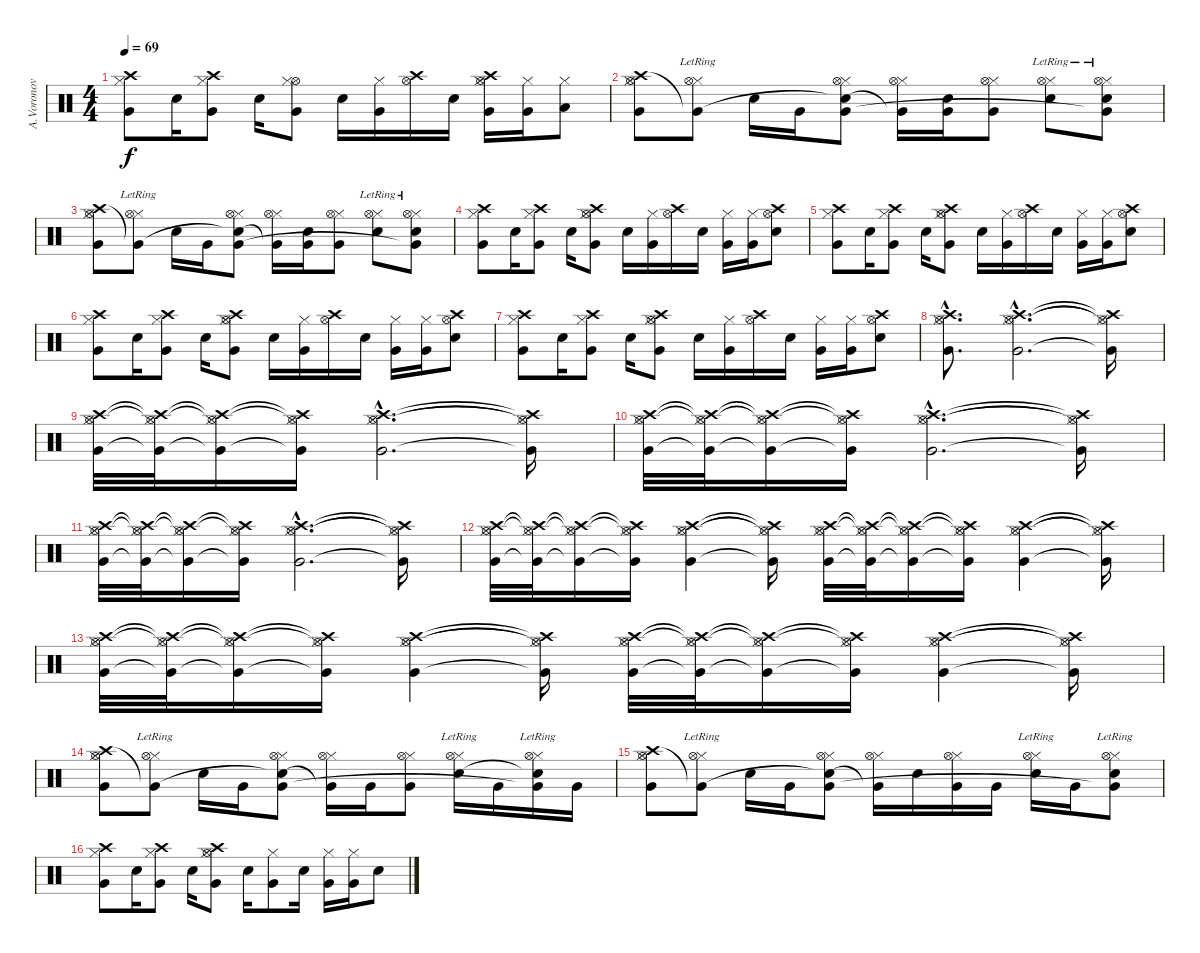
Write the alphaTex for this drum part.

\track ("A.Voronov - Drumzzz" "A.Voronov ") {instrument percussion}
\staff {score}
\articulation defaults
\ts (4 4)
\tempo 69
\clef neutral
\ks c
("Crash high (hit)" "Hi-Hat (closed)" "Very Low Tom (hit)").8{dy f} "Electric Snare (hit)".16 ("Crash high (hit)" "Hi-Hat (closed)" "Very Low Tom (hit)").8 "Electric Snare (hit)".16 ("Hi-Hat (open)" "Hi-Hat (closed)" "Very Low Tom (hit)").8 "Electric Snare (hit)".16 ("Hi-Hat (closed)" "Very Low Tom (hit)").16 ("Crash high (hit)" "Hi-Hat (open)").16 "Electric Snare (hit)".16 ("Crash high (hit)" "Hi-Hat (open)" "Hi-Hat (closed)" "Very Low Tom (hit)").16 ("Hi-Hat (closed)" "Very Low Tom (hit)").16 ("Hi-Hat (closed)" "Low Floor Tom (hit)").8 |
("Hi-Hat (open)" "Hi-Hat (closed)" "Crash high (hit)" "Very Low Tom (hit)").8 ("Hi-Hat (closed)"{lr} "Hi-Hat (open)"{lr} "Very Low Tom (hit)"{t}).8 "Electric Snare (hit)".16 "Very Low Tom (hit)".16 ("Hi-Hat (closed)" "Hi-Hat (open)" "Electric Snare (hit)"{t} "Very Low Tom (hit)").8 ("Hi-Hat (closed)" "Hi-Hat (open)" "Very Low Tom (hit)"{t}).16 ("Electric Snare (hit)" "Very Low Tom (hit)").16 ("Hi-Hat (closed)" "Hi-Hat (open)" "Very Low Tom (hit)").8 ("Hi-Hat (closed)"{lr} "Hi-Hat (open)"{lr} "Electric Snare (hit)").8 ("Hi-Hat (closed)"{lr} "Hi-Hat (open)"{lr} "Electric Snare (hit)" "Very Low Tom (hit)"{t}).8 |
("Hi-Hat (open)" "Hi-Hat (closed)" "Crash high (hit)" "Very Low Tom (hit)").8 ("Hi-Hat (closed)"{lr} "Hi-Hat (open)"{lr} "Very Low Tom (hit)"{t}).8 "Electric Snare (hit)".16 "Very Low Tom (hit)".16 ("Hi-Hat (closed)" "Hi-Hat (open)" "Electric Snare (hit)"{t} "Very Low Tom (hit)").8 ("Hi-Hat (closed)" "Hi-Hat (open)" "Very Low Tom (hit)"{t}).16 ("Electric Snare (hit)" "Very Low Tom (hit)").16 ("Hi-Hat (closed)" "Hi-Hat (open)" "Very Low Tom (hit)").8 ("Hi-Hat (closed)"{lr} "Hi-Hat (open)"{lr} "Electric Snare (hit)").8 ("Hi-Hat (closed)"{lr} "Hi-Hat (open)"{lr} "Electric Snare (hit)" "Very Low Tom (hit)"{t}).8 |
("Crash high (hit)" "Hi-Hat (closed)" "Very Low Tom (hit)").8 "Electric Snare (hit)".16 ("Crash high (hit)" "Hi-Hat (closed)" "Very Low Tom (hit)").8 "Electric Snare (hit)".16 ("Crash high (hit)" "Hi-Hat (open)" "Hi-Hat (closed)" "Very Low Tom (hit)").8 "Electric Snare (hit)".16 ("Hi-Hat (closed)" "Very Low Tom (hit)").16 ("Crash high (hit)" "Hi-Hat (open)").16 "Electric Snare (hit)".16 ("Hi-Hat (closed)" "Very Low Tom (hit)").16 ("Hi-Hat (closed)" "Very Low Tom (hit)").16 ("Crash high (hit)" "Hi-Hat (open)" "Electric Snare (hit)").8 |
("Crash high (hit)" "Hi-Hat (closed)" "Very Low Tom (hit)").8 "Electric Snare (hit)".16 ("Crash high (hit)" "Hi-Hat (closed)" "Very Low Tom (hit)").8 "Electric Snare (hit)".16 ("Crash high (hit)" "Hi-Hat (open)" "Hi-Hat (closed)" "Very Low Tom (hit)").8 "Electric Snare (hit)".16 ("Hi-Hat (closed)" "Very Low Tom (hit)").16 ("Crash high (hit)" "Hi-Hat (open)").16 "Electric Snare (hit)".16 ("Hi-Hat (closed)" "Very Low Tom (hit)").16 ("Hi-Hat (closed)" "Very Low Tom (hit)").16 ("Crash high (hit)" "Hi-Hat (open)" "Electric Snare (hit)").8 |
("Crash high (hit)" "Hi-Hat (closed)" "Very Low Tom (hit)").8 "Electric Snare (hit)".16 ("Crash high (hit)" "Hi-Hat (closed)" "Very Low Tom (hit)").8 "Electric Snare (hit)".16 ("Crash high (hit)" "Hi-Hat (open)" "Hi-Hat (closed)" "Very Low Tom (hit)").8 "Electric Snare (hit)".16 ("Hi-Hat (closed)" "Very Low Tom (hit)").16 ("Crash high (hit)" "Hi-Hat (open)").16 "Electric Snare (hit)".16 ("Hi-Hat (closed)" "Very Low Tom (hit)").16 ("Hi-Hat (closed)" "Very Low Tom (hit)").16 ("Crash high (hit)" "Hi-Hat (open)" "Electric Snare (hit)").8 |
("Crash high (hit)" "Hi-Hat (closed)" "Very Low Tom (hit)").8 "Electric Snare (hit)".16 ("Crash high (hit)" "Hi-Hat (closed)" "Very Low Tom (hit)").8 "Electric Snare (hit)".16 ("Crash high (hit)" "Hi-Hat (open)" "Hi-Hat (closed)" "Very Low Tom (hit)").8 "Electric Snare (hit)".16 ("Hi-Hat (closed)" "Very Low Tom (hit)").16 ("Crash high (hit)" "Hi-Hat (open)").16 "Electric Snare (hit)".16 ("Hi-Hat (closed)" "Very Low Tom (hit)").16 ("Hi-Hat (closed)" "Very Low Tom (hit)").16 ("Crash high (hit)" "Hi-Hat (open)" "Electric Snare (hit)").8 |
("Crash high (hit)"{hac} "Hi-Hat (open)"{hac} "Hi-Hat (closed)"{hac} "Very Low Tom (hit)"{hac}).8{d} ("Crash high (hit)"{hac} "Hi-Hat (open)"{hac} "Hi-Hat (closed)"{hac} "Very Low Tom (hit)"{hac}).2{d} ("Crash high (hit)"{t} "Hi-Hat (open)"{t} "Hi-Hat (closed)"{t} "Very Low Tom (hit)"{t}).16 |
("Crash high (hit)" "Hi-Hat (open)" "Hi-Hat (closed)" "Very Low Tom (hit)").32 ("Crash high (hit)"{t} "Hi-Hat (open)"{t} "Hi-Hat (closed)" "Very Low Tom (hit)"{t}).32 ("Crash high (hit)"{t} "Hi-Hat (open)"{t} "Hi-Hat (closed)" "Very Low Tom (hit)"{t}).16 ("Crash high (hit)"{t} "Hi-Hat (open)"{t} "Hi-Hat (closed)" "Very Low Tom (hit)"{t}).16 ("Crash high (hit)"{hac} "Hi-Hat (open)"{hac} "Hi-Hat (closed)"{hac} "Very Low Tom (hit)"{hac}).2{d} ("Crash high (hit)"{t} "Hi-Hat (open)"{t} "Hi-Hat (closed)"{t} "Very Low Tom (hit)"{t}).16 |
("Crash high (hit)" "Hi-Hat (open)" "Hi-Hat (closed)" "Very Low Tom (hit)").32 ("Crash high (hit)"{t} "Hi-Hat (open)"{t} "Hi-Hat (closed)" "Very Low Tom (hit)"{t}).32 ("Crash high (hit)"{t} "Hi-Hat (open)"{t} "Hi-Hat (closed)" "Very Low Tom (hit)"{t}).16 ("Crash high (hit)"{t} "Hi-Hat (open)"{t} "Hi-Hat (closed)" "Very Low Tom (hit)"{t}).16 ("Crash high (hit)"{hac} "Hi-Hat (open)"{hac} "Hi-Hat (closed)"{hac} "Very Low Tom (hit)"{hac}).2{d} ("Crash high (hit)"{t} "Hi-Hat (open)"{t} "Hi-Hat (closed)"{t} "Very Low Tom (hit)"{t}).16 |
("Crash high (hit)" "Hi-Hat (open)" "Hi-Hat (closed)" "Very Low Tom (hit)").32 ("Crash high (hit)"{t} "Hi-Hat (open)"{t} "Hi-Hat (closed)" "Very Low Tom (hit)"{t}).32 ("Crash high (hit)"{t} "Hi-Hat (open)"{t} "Hi-Hat (closed)" "Very Low Tom (hit)"{t}).16 ("Crash high (hit)"{t} "Hi-Hat (open)"{t} "Hi-Hat (closed)" "Very Low Tom (hit)"{t}).16 ("Crash high (hit)"{hac} "Hi-Hat (open)"{hac} "Hi-Hat (closed)"{hac} "Very Low Tom (hit)"{hac}).2{d} ("Crash high (hit)"{t} "Hi-Hat (open)"{t} "Hi-Hat (closed)"{t} "Very Low Tom (hit)"{t}).16 |
("Crash high (hit)" "Hi-Hat (open)" "Hi-Hat (closed)" "Very Low Tom (hit)").32 ("Crash high (hit)"{t} "Hi-Hat (open)"{t} "Hi-Hat (closed)" "Very Low Tom (hit)"{t}).32 ("Crash high (hit)"{t} "Hi-Hat (open)"{t} "Hi-Hat (closed)" "Very Low Tom (hit)"{t}).16 ("Crash high (hit)"{t} "Hi-Hat (open)"{t} "Hi-Hat (closed)" "Very Low Tom (hit)"{t}).16 ("Crash high (hit)" "Hi-Hat (open)" "Hi-Hat (closed)" "Very Low Tom (hit)").4 ("Crash high (hit)"{t} "Hi-Hat (open)"{t} "Hi-Hat (closed)"{t} "Very Low Tom (hit)"{t}).16 ("Crash high (hit)" "Hi-Hat (open)" "Hi-Hat (closed)" "Very Low Tom (hit)").32 ("Crash high (hit)"{t} "Hi-Hat (open)"{t} "Hi-Hat (closed)" "Very Low Tom (hit)"{t}).32 ("Crash high (hit)"{t} "Hi-Hat (open)"{t} "Hi-Hat (closed)" "Very Low Tom (hit)"{t}).16 ("Crash high (hit)"{t} "Hi-Hat (open)"{t} "Hi-Hat (closed)" "Very Low Tom (hit)"{t}).16 ("Crash high (hit)" "Hi-Hat (open)" "Hi-Hat (closed)" "Very Low Tom (hit)").4 ("Crash high (hit)"{t} "Hi-Hat (open)"{t} "Hi-Hat (closed)"{t} "Very Low Tom (hit)"{t}).16 |
("Crash high (hit)" "Hi-Hat (open)" "Hi-Hat (closed)" "Very Low Tom (hit)").32 ("Crash high (hit)"{t} "Hi-Hat (open)"{t} "Hi-Hat (closed)" "Very Low Tom (hit)"{t}).32 ("Crash high (hit)"{t} "Hi-Hat (open)"{t} "Hi-Hat (closed)" "Very Low Tom (hit)"{t}).16 ("Crash high (hit)"{t} "Hi-Hat (open)"{t} "Hi-Hat (closed)" "Very Low Tom (hit)"{t}).16 ("Crash high (hit)" "Hi-Hat (open)" "Hi-Hat (closed)" "Very Low Tom (hit)").4 ("Crash high (hit)"{t} "Hi-Hat (open)"{t} "Hi-Hat (closed)"{t} "Very Low Tom (hit)"{t}).16 ("Crash high (hit)" "Hi-Hat (open)" "Hi-Hat (closed)" "Very Low Tom (hit)").32 ("Crash high (hit)"{t} "Hi-Hat (open)"{t} "Hi-Hat (closed)" "Very Low Tom (hit)"{t}).32 ("Crash high (hit)"{t} "Hi-Hat (open)"{t} "Hi-Hat (closed)" "Very Low Tom (hit)"{t}).16 ("Crash high (hit)"{t} "Hi-Hat (open)"{t} "Hi-Hat (closed)" "Very Low Tom (hit)"{t}).16 ("Crash high (hit)" "Hi-Hat (open)" "Hi-Hat (closed)" "Very Low Tom (hit)").4 ("Crash high (hit)"{t} "Hi-Hat (open)"{t} "Hi-Hat (closed)"{t} "Very Low Tom (hit)"{t}).16 |
("Hi-Hat (open)" "Hi-Hat (closed)" "Crash high (hit)" "Very Low Tom (hit)").8 ("Hi-Hat (closed)"{lr} "Hi-Hat (open)"{lr} "Very Low Tom (hit)"{t}).8 "Electric Snare (hit)".16 "Very Low Tom (hit)".16 ("Hi-Hat (closed)" "Hi-Hat (open)" "Electric Snare (hit)"{t} "Very Low Tom (hit)").8 ("Hi-Hat (closed)" "Hi-Hat (open)" "Very Low Tom (hit)"{t}).16 "Very Low Tom (hit)".16 ("Hi-Hat (closed)" "Hi-Hat (open)" "Very Low Tom (hit)").8 ("Hi-Hat (closed)"{lr} "Hi-Hat (open)"{lr} "Electric Snare (hit)").16 "Very Low Tom (hit)".16 ("Hi-Hat (closed)"{lr} "Hi-Hat (open)"{lr} "Electric Snare (hit)"{t} "Very Low Tom (hit)"{t}).16 "Very Low Tom (hit)".16 |
("Hi-Hat (open)" "Hi-Hat (closed)" "Crash high (hit)" "Very Low Tom (hit)").8 ("Hi-Hat (closed)"{lr} "Hi-Hat (open)"{lr} "Very Low Tom (hit)"{t}).8 "Electric Snare (hit)".16 "Very Low Tom (hit)".16 ("Hi-Hat (closed)" "Hi-Hat (open)" "Electric Snare (hit)"{t} "Very Low Tom (hit)").8 ("Hi-Hat (closed)" "Hi-Hat (open)" "Very Low Tom (hit)"{t}).16 "Electric Snare (hit)".16 ("Hi-Hat (closed)" "Hi-Hat (open)" "Very Low Tom (hit)").16 "Very Low Tom (hit)".16 ("Hi-Hat (closed)"{lr} "Hi-Hat (open)"{lr} "Electric Snare (hit)").16 "Very Low Tom (hit)".16 ("Hi-Hat (closed)"{lr} "Hi-Hat (open)"{lr} "Electric Snare (hit)" "Very Low Tom (hit)"{t}).8 |
("Crash high (hit)" "Hi-Hat (closed)" "Very Low Tom (hit)").8 "Electric Snare (hit)".16 ("Crash high (hit)" "Hi-Hat (closed)" "Very Low Tom (hit)").8 "Electric Snare (hit)".16 ("Crash high (hit)" "Hi-Hat (open)" "Hi-Hat (closed)" "Very Low Tom (hit)").8 "Electric Snare (hit)".16 ("Hi-Hat (closed)" "Very Low Tom (hit)").8 "Electric Snare (hit)".16 ("Hi-Hat (closed)" "Very Low Tom (hit)").16 ("Hi-Hat (closed)" "Very Low Tom (hit)").16 "Electric Snare (hit)".8
